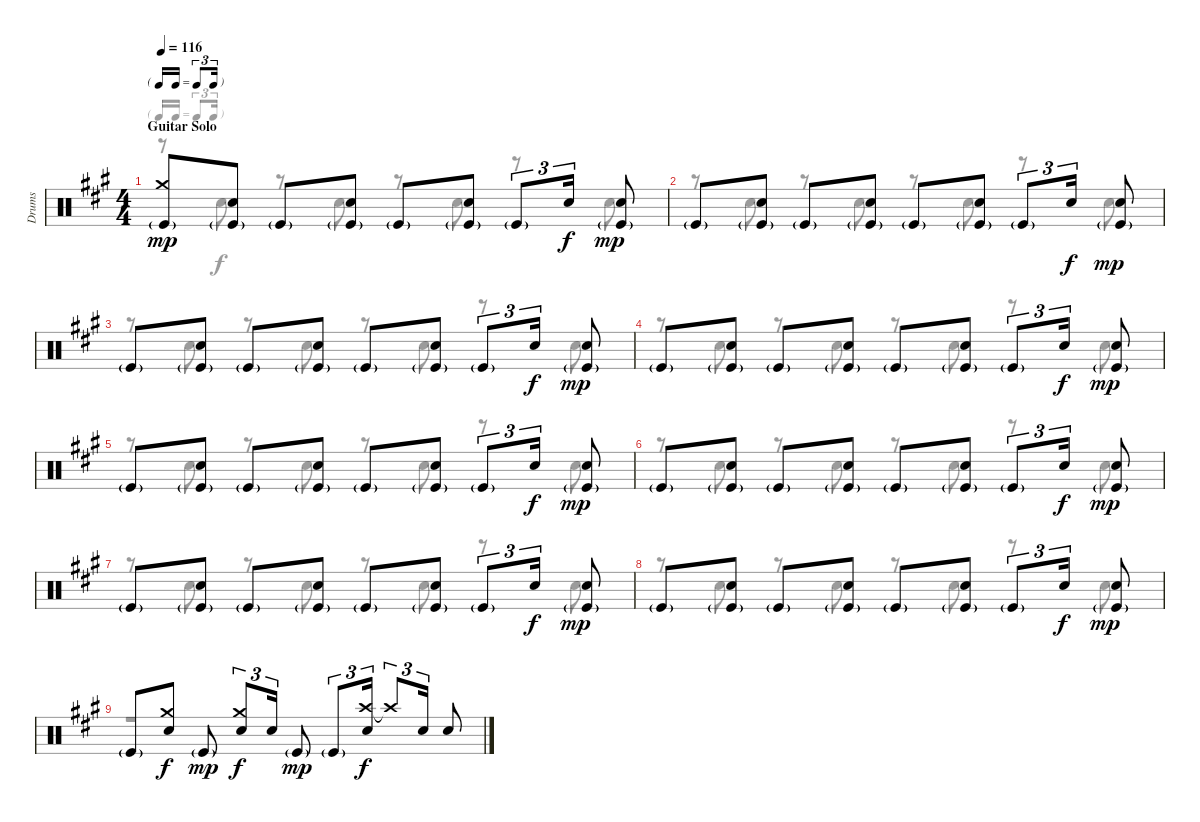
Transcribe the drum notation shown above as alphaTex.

\track ("Drums" "Drums") {instrument percussion}
\staff {score}
\articulation defaults
\voice
\ts (4 4)
\tf triplet16th
\section ("" "Guitar Solo")
\tempo 116
\clef neutral
\ks f#minor
("Kick (hit)"{g} "Crash medium (hit)").8{dy mp} ("Kick (hit)"{g} "Electric Snare (hit)").8 "Kick (hit)"{g}.8 ("Kick (hit)"{g} "Electric Snare (hit)").8 "Kick (hit)"{g}.8 ("Kick (hit)"{g} "Electric Snare (hit)").8 "Kick (hit)"{g}.8{tu (3 2)} "Electric Snare (hit)".16{tu (3 2) dy f} ("Kick (hit)"{g} "Electric Snare (hit)").8{dy mp} |
"Kick (hit)"{g}.8 ("Kick (hit)"{g} "Electric Snare (hit)").8 "Kick (hit)"{g}.8 ("Kick (hit)"{g} "Electric Snare (hit)").8 "Kick (hit)"{g}.8 ("Kick (hit)"{g} "Electric Snare (hit)").8 "Kick (hit)"{g}.8{tu (3 2)} "Electric Snare (hit)".16{tu (3 2) dy f} ("Kick (hit)"{g} "Electric Snare (hit)").8{dy mp} |
"Kick (hit)"{g}.8 ("Kick (hit)"{g} "Electric Snare (hit)").8 "Kick (hit)"{g}.8 ("Kick (hit)"{g} "Electric Snare (hit)").8 "Kick (hit)"{g}.8 ("Kick (hit)"{g} "Electric Snare (hit)").8 "Kick (hit)"{g}.8{tu (3 2)} "Electric Snare (hit)".16{tu (3 2) dy f} ("Kick (hit)"{g} "Electric Snare (hit)").8{dy mp} |
"Kick (hit)"{g}.8 ("Kick (hit)"{g} "Electric Snare (hit)").8 "Kick (hit)"{g}.8 ("Kick (hit)"{g} "Electric Snare (hit)").8 "Kick (hit)"{g}.8 ("Kick (hit)"{g} "Electric Snare (hit)").8 "Kick (hit)"{g}.8{tu (3 2)} "Electric Snare (hit)".16{tu (3 2) dy f} ("Kick (hit)"{g} "Electric Snare (hit)").8{dy mp} |
"Kick (hit)"{g}.8 ("Kick (hit)"{g} "Electric Snare (hit)").8 "Kick (hit)"{g}.8 ("Kick (hit)"{g} "Electric Snare (hit)").8 "Kick (hit)"{g}.8 ("Kick (hit)"{g} "Electric Snare (hit)").8 "Kick (hit)"{g}.8{tu (3 2)} "Electric Snare (hit)".16{tu (3 2) dy f} ("Kick (hit)"{g} "Electric Snare (hit)").8{dy mp} |
"Kick (hit)"{g}.8 ("Kick (hit)"{g} "Electric Snare (hit)").8 "Kick (hit)"{g}.8 ("Kick (hit)"{g} "Electric Snare (hit)").8 "Kick (hit)"{g}.8 ("Kick (hit)"{g} "Electric Snare (hit)").8 "Kick (hit)"{g}.8{tu (3 2)} "Electric Snare (hit)".16{tu (3 2) dy f} ("Kick (hit)"{g} "Electric Snare (hit)").8{dy mp} |
"Kick (hit)"{g}.8 ("Kick (hit)"{g} "Electric Snare (hit)").8 "Kick (hit)"{g}.8 ("Kick (hit)"{g} "Electric Snare (hit)").8 "Kick (hit)"{g}.8 ("Kick (hit)"{g} "Electric Snare (hit)").8 "Kick (hit)"{g}.8{tu (3 2)} "Electric Snare (hit)".16{tu (3 2) dy f} ("Kick (hit)"{g} "Electric Snare (hit)").8{dy mp} |
"Kick (hit)"{g}.8 ("Kick (hit)"{g} "Electric Snare (hit)").8 "Kick (hit)"{g}.8 ("Kick (hit)"{g} "Electric Snare (hit)").8 "Kick (hit)"{g}.8 ("Kick (hit)"{g} "Electric Snare (hit)").8 "Kick (hit)"{g}.8{tu (3 2)} "Electric Snare (hit)".16{tu (3 2) dy f} ("Kick (hit)"{g} "Electric Snare (hit)").8{dy mp} |
"Kick (hit)"{g}.8 ("Crash medium (hit)" "Electric Snare (hit)").8{dy f} "Kick (hit)"{g}.8{dy mp} ("Crash medium (hit)" "Electric Snare (hit)").8{tu (3 2) dy f} "Electric Snare (hit)".16{tu (3 2)} "Kick (hit)"{g}.8{dy mp} "Kick (hit)"{g}.8{tu (3 2)} ("Crash high (hit)" "Electric Snare (hit)").16{tu (3 2) dy f} "Crash high (hit)"{t}.8{tu (3 2)} "Electric Snare (hit)".16{tu (3 2)} "Electric Snare (hit)".8
\voice
\clef neutral
\ottava regular
\simile none
\ks f#minor
r.8{dy f} "Hand Clap (hit)".8 r.8 "Hand Clap (hit)".8 r.8 "Hand Clap (hit)".8 r.8 "Hand Clap (hit)".8 |
r.8 "Hand Clap (hit)".8 r.8 "Hand Clap (hit)".8 r.8 "Hand Clap (hit)".8 r.8 "Hand Clap (hit)".8 |
r.8 "Hand Clap (hit)".8 r.8 "Hand Clap (hit)".8 r.8 "Hand Clap (hit)".8 r.8 "Hand Clap (hit)".8 |
r.8 "Hand Clap (hit)".8 r.8 "Hand Clap (hit)".8 r.8 "Hand Clap (hit)".8 r.8 "Hand Clap (hit)".8 |
r.8 "Hand Clap (hit)".8 r.8 "Hand Clap (hit)".8 r.8 "Hand Clap (hit)".8 r.8 "Hand Clap (hit)".8 |
r.8 "Hand Clap (hit)".8 r.8 "Hand Clap (hit)".8 r.8 "Hand Clap (hit)".8 r.8 "Hand Clap (hit)".8 |
r.8 "Hand Clap (hit)".8 r.8 "Hand Clap (hit)".8 r.8 "Hand Clap (hit)".8 r.8 "Hand Clap (hit)".8 |
r.8 "Hand Clap (hit)".8 r.8 "Hand Clap (hit)".8 r.8 "Hand Clap (hit)".8 r.8 "Hand Clap (hit)".8 |
r.1
